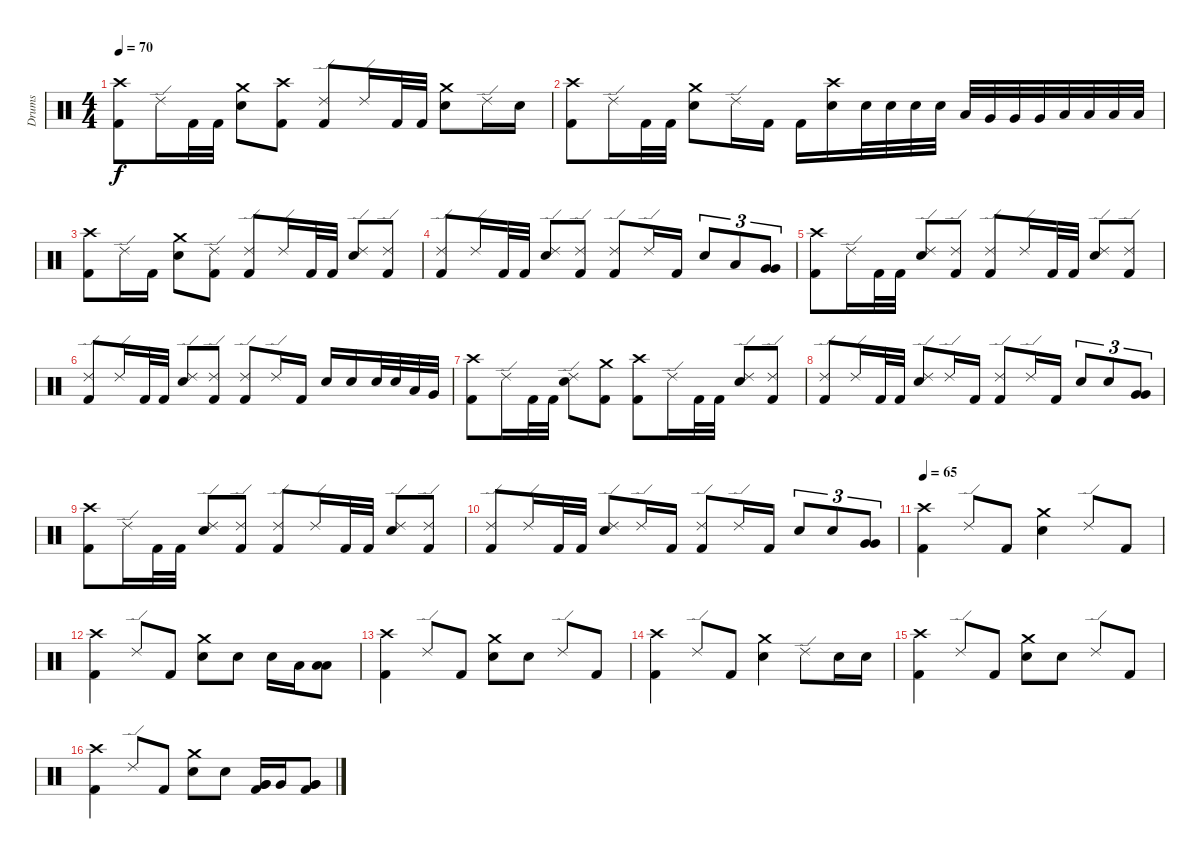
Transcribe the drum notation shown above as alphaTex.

\track ("Drums" "Drums") {instrument percussion}
\staff {score}
\articulation defaults
\ts (4 4)
\tempo 70
\clef neutral
\ks c
("Crash high (hit)" "Kick (hit) 2").8{dy f} "Ride (edge) 2".16 "Kick (hit) 2".32 "Kick (hit) 2".32 ("Crash medium (hit)" "Electric Snare (hit)").8 ("Crash high (hit)" "Kick (hit) 2").8 ("Ride (edge) 2" "Kick (hit) 2").8 "Ride (edge) 2".16 "Kick (hit) 2".32 "Kick (hit) 2".32 ("Crash medium (hit)" "Electric Snare (hit)").8 "Ride (edge) 2".16 "Electric Snare (hit)".16 |
("Crash high (hit)" "Kick (hit) 2").8 "Ride (edge) 2".16 "Kick (hit) 2".32 "Kick (hit) 2".32 ("Crash medium (hit)" "Electric Snare (hit)").8 "Ride (edge) 2".16 "Kick (hit) 2".16 "Kick (hit) 2".16 ("Crash high (hit)" "Electric Snare (hit)").16 "Electric Snare (hit)".32 "Electric Snare (hit)".32 "Electric Snare (hit)".32 "Electric Snare (hit)".32 "Low Tom (hit)".32 "Very Low Tom (hit)".32 "Very Low Tom (hit)".32 "Very Low Tom (hit)".32 "Low Floor Tom (hit)".32 "Low Floor Tom (hit)".32 "Low Floor Tom (hit)".32 "Low Floor Tom (hit)".32 |
("Crash high (hit)" "Kick (hit) 2").8 "Ride (edge) 2".16 "Kick (hit) 2".16 ("Crash medium (hit)" "Electric Snare (hit)").8 ("Ride (edge) 2" "Kick (hit) 2").8 ("Ride (edge) 2" "Kick (hit) 2").8 "Ride (edge) 2".16 "Kick (hit) 2".32 "Kick (hit) 2".32 ("Ride (edge) 2" "Electric Snare (hit)").8 ("Ride (edge) 2" "Kick (hit) 2").8 |
("Ride (edge) 2" "Kick (hit) 2").8 "Ride (edge) 2".16 "Kick (hit) 2".32 "Kick (hit) 2".32 ("Ride (edge) 2" "Electric Snare (hit)").8 ("Ride (edge) 2" "Kick (hit) 2").8 ("Ride (edge) 2" "Kick (hit) 2").8 "Ride (edge) 2".16 "Kick (hit) 2".16 "Electric Snare (hit)".8{tu (3 2)} "Low Tom (hit)".8{tu (3 2)} ("Very Low Tom (hit)" "Very Low Tom (hit)").8{tu (3 2) bu 60} |
("Crash high (hit)" "Kick (hit) 2").8 "Ride (edge) 2".16 "Kick (hit) 2".32 "Kick (hit) 2".32 ("Ride (edge) 2" "Electric Snare (hit)").8 ("Ride (edge) 2" "Kick (hit) 2").8 ("Ride (edge) 2" "Kick (hit) 2").8 "Ride (edge) 2".16 "Kick (hit) 2".32 "Kick (hit) 2".32 ("Ride (edge) 2" "Electric Snare (hit)").8 ("Ride (edge) 2" "Kick (hit) 2").8 |
("Ride (edge) 2" "Kick (hit) 2").8 "Ride (edge) 2".16 "Kick (hit) 2".32 "Kick (hit) 2".32 ("Ride (edge) 2" "Electric Snare (hit)").8 ("Ride (edge) 2" "Kick (hit) 2").8 ("Ride (edge) 2" "Kick (hit) 2").8 "Ride (edge) 2".16 "Kick (hit) 2".16 "Electric Snare (hit)".16 "Electric Snare (hit)".16 "Electric Snare (hit)".32 "Electric Snare (hit)".32 "Low Tom (hit)".32 "Very Low Tom (hit)".32 |
("Crash high (hit)" "Kick (hit) 2").8 "Ride (edge) 2".16 "Kick (hit) 2".32 "Kick (hit) 2".32 ("Ride (edge) 2" "Electric Snare (hit)").8 ("Crash medium (hit)" "Kick (hit) 2").8 ("Crash high (hit)" "Kick (hit) 2").8 "Ride (edge) 2".16 "Kick (hit) 2".32 "Kick (hit) 2".32 ("Ride (edge) 2" "Electric Snare (hit)").8 ("Ride (edge) 2" "Kick (hit) 2").8 |
("Ride (edge) 2" "Kick (hit) 2").8 "Ride (edge) 2".16 "Kick (hit) 2".32 "Kick (hit) 2".32 ("Ride (edge) 2" "Electric Snare (hit)").8 "Ride (edge) 2".16 "Kick (hit) 2".16 ("Ride (edge) 2" "Kick (hit) 2").8 "Ride (edge) 2".16 "Kick (hit) 2".16 "Electric Snare (hit)".8{tu (3 2)} "Electric Snare (hit)".8{tu (3 2)} ("Very Low Tom (hit)" "Very Low Tom (hit)").8{tu (3 2) bu 60} |
("Crash high (hit)" "Kick (hit) 2").8 "Ride (edge) 2".16 "Kick (hit) 2".32 "Kick (hit) 2".32 ("Ride (edge) 2" "Electric Snare (hit)").8 ("Ride (edge) 2" "Kick (hit) 2").8 ("Ride (edge) 2" "Kick (hit) 2").8 "Ride (edge) 2".16 "Kick (hit) 2".32 "Kick (hit) 2".32 ("Ride (edge) 2" "Electric Snare (hit)").8 ("Ride (edge) 2" "Kick (hit) 2").8 |
("Ride (edge) 2" "Kick (hit) 2").8 "Ride (edge) 2".16 "Kick (hit) 2".32 "Kick (hit) 2".32 ("Ride (edge) 2" "Electric Snare (hit)").8 "Ride (edge) 2".16 "Kick (hit) 2".16 ("Ride (edge) 2" "Kick (hit) 2").8 "Ride (edge) 2".16 "Kick (hit) 2".16 "Electric Snare (hit)".8{tu (3 2)} "Electric Snare (hit)".8{tu (3 2)} ("Very Low Tom (hit)" "Very Low Tom (hit)").8{tu (3 2) bu 60} |
\tempo 65
("Crash high (hit)" "Kick (hit) 2").4 "Ride (edge) 2".8 "Kick (hit) 2".8 ("Crash medium (hit)" "Electric Snare (hit)").4 "Ride (edge) 2".8 "Kick (hit) 2".8 |
("Crash high (hit)" "Kick (hit) 2").4 "Ride (edge) 2".8 "Kick (hit) 2".8 ("Crash medium (hit)" "Electric Snare (hit)").8 "Electric Snare (hit)".8 "Electric Snare (hit)".16 "Low Tom (hit)".16 ("Low Tom (hit)" "Low Tom (hit)").8{bu 60} |
("Crash high (hit)" "Kick (hit) 2").4 "Ride (edge) 2".8 "Kick (hit) 2".8 ("Crash medium (hit)" "Electric Snare (hit)").8 "Electric Snare (hit)".8 "Ride (edge) 2".8 "Kick (hit) 2".8 |
("Crash high (hit)" "Kick (hit) 2").4 "Ride (edge) 2".8 "Kick (hit) 2".8 ("Crash medium (hit)" "Electric Snare (hit)").4 "Ride (edge) 2".8 "Electric Snare (hit)".16 "Electric Snare (hit)".16 |
("Crash high (hit)" "Kick (hit) 2").4 "Ride (edge) 2".8 "Kick (hit) 2".8 ("Crash medium (hit)" "Electric Snare (hit)").8 "Electric Snare (hit)".8 "Ride (edge) 2".8 "Kick (hit) 2".8 |
("Crash high (hit)" "Kick (hit) 2").4 "Ride (edge) 2".8 "Kick (hit) 2".8 ("Crash medium (hit)" "Electric Snare (hit)").8 "Electric Snare (hit)".8 ("Very Low Tom (hit)" "Very Low Tom (hit)" "Kick (hit) 2").16{bu 60} "Very Low Tom (hit)".16 ("Very Low Tom (hit)" "Very Low Tom (hit)" "Kick (hit) 2").8{bu 60}
